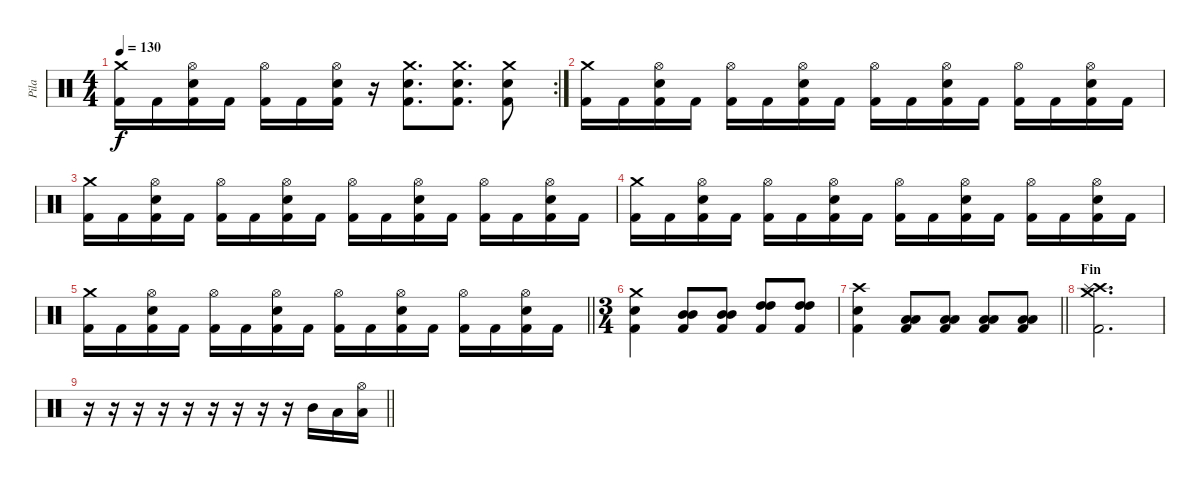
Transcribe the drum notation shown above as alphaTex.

\track ("Pila" "Pila") {instrument percussion}
\staff {score}
\articulation defaults
\rc 2
\ts (4 4)
\tempo 130
\clef neutral
\ks c
("Crash medium (hit)" "Kick (hit) 2").16{dy f} "Kick (hit) 2".16 ("Hi-Hat (open)" "Electric Snare (hit)" "Kick (hit) 2").16 "Kick (hit) 2".16 ("Hi-Hat (open)" "Kick (hit) 2").16 "Kick (hit) 2".16 ("Hi-Hat (open)" "Electric Snare (hit)" "Kick (hit) 2").16 r.16 ("Crash medium (hit)" "Electric Snare (hit)" "Kick (hit) 2").8{d} ("Crash medium (hit)" "Electric Snare (hit)" "Kick (hit) 2").8{d} ("Crash medium (hit)" "Electric Snare (hit)" "Kick (hit) 2").8 |
("Crash medium (hit)" "Kick (hit) 2").16 "Kick (hit) 2".16 ("Hi-Hat (open)" "Electric Snare (hit)" "Kick (hit) 2").16 "Kick (hit) 2".16 ("Hi-Hat (open)" "Kick (hit) 2").16 "Kick (hit) 2".16 ("Hi-Hat (open)" "Electric Snare (hit)" "Kick (hit) 2").16 "Kick (hit) 2".16 ("Hi-Hat (open)" "Kick (hit) 2").16 "Kick (hit) 2".16 ("Hi-Hat (open)" "Electric Snare (hit)" "Kick (hit) 2").16 "Kick (hit) 2".16 ("Hi-Hat (open)" "Kick (hit) 2").16 "Kick (hit) 2".16 ("Hi-Hat (open)" "Electric Snare (hit)" "Kick (hit) 2").16 "Kick (hit) 2".16 |
("Crash medium (hit)" "Kick (hit) 2").16 "Kick (hit) 2".16 ("Hi-Hat (open)" "Electric Snare (hit)" "Kick (hit) 2").16 "Kick (hit) 2".16 ("Hi-Hat (open)" "Kick (hit) 2").16 "Kick (hit) 2".16 ("Hi-Hat (open)" "Electric Snare (hit)" "Kick (hit) 2").16 "Kick (hit) 2".16 ("Hi-Hat (open)" "Kick (hit) 2").16 "Kick (hit) 2".16 ("Hi-Hat (open)" "Electric Snare (hit)" "Kick (hit) 2").16 "Kick (hit) 2".16 ("Hi-Hat (open)" "Kick (hit) 2").16 "Kick (hit) 2".16 ("Hi-Hat (open)" "Electric Snare (hit)" "Kick (hit) 2").16 "Kick (hit) 2".16 |
("Crash medium (hit)" "Kick (hit) 2").16 "Kick (hit) 2".16 ("Hi-Hat (open)" "Electric Snare (hit)" "Kick (hit) 2").16 "Kick (hit) 2".16 ("Hi-Hat (open)" "Kick (hit) 2").16 "Kick (hit) 2".16 ("Hi-Hat (open)" "Electric Snare (hit)" "Kick (hit) 2").16 "Kick (hit) 2".16 ("Hi-Hat (open)" "Kick (hit) 2").16 "Kick (hit) 2".16 ("Hi-Hat (open)" "Electric Snare (hit)" "Kick (hit) 2").16 "Kick (hit) 2".16 ("Hi-Hat (open)" "Kick (hit) 2").16 "Kick (hit) 2".16 ("Hi-Hat (open)" "Electric Snare (hit)" "Kick (hit) 2").16 "Kick (hit) 2".16 |
\barLineRight lightlight
("Crash medium (hit)" "Kick (hit) 2").16 "Kick (hit) 2".16 ("Hi-Hat (open)" "Electric Snare (hit)" "Kick (hit) 2").16 "Kick (hit) 2".16 ("Hi-Hat (open)" "Kick (hit) 2").16 "Kick (hit) 2".16 ("Hi-Hat (open)" "Electric Snare (hit)" "Kick (hit) 2").16 "Kick (hit) 2".16 ("Hi-Hat (open)" "Kick (hit) 2").16 "Kick (hit) 2".16 ("Hi-Hat (open)" "Electric Snare (hit)" "Kick (hit) 2").16 "Kick (hit) 2".16 ("Hi-Hat (open)" "Kick (hit) 2").16 "Kick (hit) 2".16 ("Hi-Hat (open)" "Electric Snare (hit)" "Kick (hit) 2").16 "Kick (hit) 2".16 |
\ts (3 4)
("Crash medium (hit)" "Electric Snare (hit)" "Kick (hit) 2").4 ("Mid Tom (hit)" "Mid Tom (hit)" "Kick (hit) 2").8 ("Mid Tom (hit)" "Mid Tom (hit)" "Kick (hit) 2").8 ("High Tom (hit)" "High Tom (hit)" "Kick (hit) 2").8 ("High Tom (hit)" "High Tom (hit)" "Kick (hit) 2").8 |
\barLineRight lightlight
("Crash high (hit)" "Electric Snare (hit)" "Kick (hit) 2").4 ("Low Tom (hit)" "Low Tom (hit)" "Kick (hit) 2").8 ("Low Tom (hit)" "Low Tom (hit)" "Kick (hit) 2").8 ("Low Floor Tom (hit)" "Low Floor Tom (hit)" "Kick (hit) 2").8 ("Low Floor Tom (hit)" "Low Floor Tom (hit)" "Kick (hit) 2").8 |
\section ("" "Fin")
("Crash high (hit)" "Splash (hit)" "Crash medium (hit)" "Kick (hit) 2").2{d} |
\barLineRight lightlight
r.16 r.16 r.16 r.16 r.16 r.16 r.16 r.16 r.16 "Mid Tom (hit)".16 "Low Tom (hit)".16 ("Hi-Hat (open)" "Low Floor Tom (hit)").16
